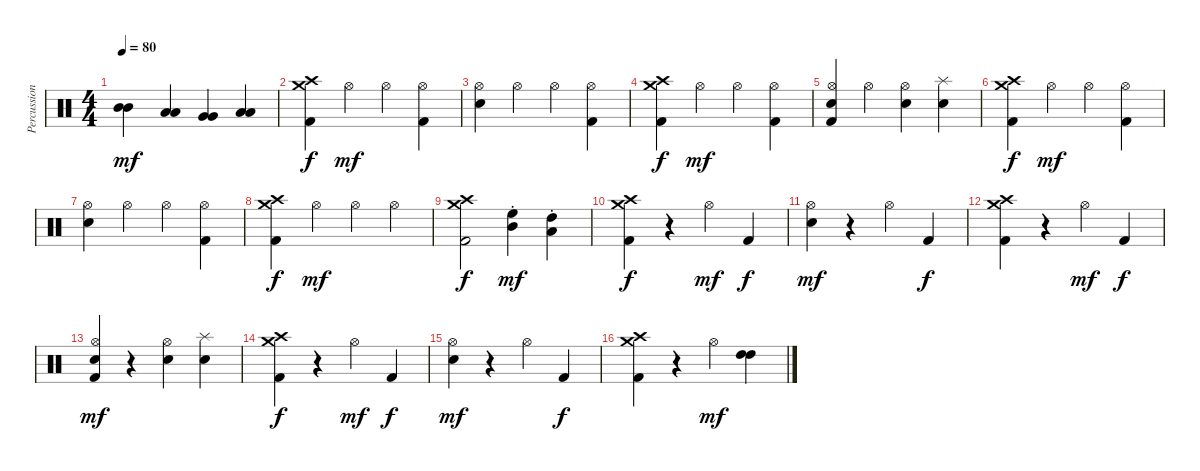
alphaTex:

\track ("Percussioni" "Percussion") {instrument percussion}
\staff {score}
\articulation defaults
\ts (4 4)
\tempo 80
\clef neutral
\ks c
("Mid Tom (hit)" "Mid Tom (hit)").4{dy mf} ("Low Tom (hit)" "Low Tom (hit)").4 ("Very Low Tom (hit)" "Very Low Tom (hit)").4 ("Low Floor Tom (hit)" "Low Floor Tom (hit)").4 |
("Crash high (hit)" "Crash medium (hit)" "Kick (hit) 2").4{dy f} "Hi-Hat (open)".4{dy mf} "Hi-Hat (open)".4 ("Hi-Hat (open)" "Kick (hit) 2").4 |
("Hi-Hat (open)" "Snare (hit) 2").4 "Hi-Hat (open)".4 "Hi-Hat (open)".4 ("Hi-Hat (open)" "Kick (hit) 2").4 |
("Crash high (hit)" "Crash medium (hit)" "Kick (hit) 2").4{dy f} "Hi-Hat (open)".4{dy mf} "Hi-Hat (open)".4 ("Hi-Hat (open)" "Kick (hit) 2").4 |
("Hi-Hat (open)" "Snare (hit) 2" "Kick (hit) 2").4 "Hi-Hat (open)".4 ("Hi-Hat (open)" "Electric Snare (hit)").4 ("Splash (hit)" "Electric Snare (hit)").4 |
("Crash high (hit)" "Crash medium (hit)" "Kick (hit) 2").4{dy f} "Hi-Hat (open)".4{dy mf} "Hi-Hat (open)".4 ("Hi-Hat (open)" "Kick (hit) 2").4 |
("Hi-Hat (open)" "Snare (hit) 2").4 "Hi-Hat (open)".4 "Hi-Hat (open)".4 ("Hi-Hat (open)" "Kick (hit) 2").4 |
("Crash high (hit)" "Crash medium (hit)" "Kick (hit) 2").4{dy f} "Hi-Hat (open)".4{dy mf} "Hi-Hat (open)".4 "Hi-Hat (open)".4 |
("Crash high (hit)" "Crash medium (hit)" "Kick (hit) 2").2{dy f} ("Mid Tom (hit)"{st} "High Floor Tom (hit)"{st}).4{dy mf} ("Low Tom (hit)"{st} "High Tom (hit)"{st}).4 |
("Crash high (hit)" "Crash medium (hit)" "Kick (hit) 2").4{dy f} r.4 "Hi-Hat (open)".4{dy mf} "Kick (hit) 2".4{dy f} |
("Hi-Hat (open)" "Snare (hit) 2").4{dy mf} r.4 "Hi-Hat (open)".4 "Kick (hit) 2".4{dy f} |
("Crash high (hit)" "Crash medium (hit)" "Kick (hit) 2").4 r.4 "Hi-Hat (open)".4{dy mf} "Kick (hit) 2".4{dy f} |
("Hi-Hat (open)" "Snare (hit) 2" "Kick (hit) 2").4{dy mf} r.4 ("Hi-Hat (open)" "Snare (hit) 2").4 ("Splash (hit)" "Snare (hit) 2").4 |
("Crash high (hit)" "Crash medium (hit)" "Kick (hit) 2").4{dy f} r.4 "Hi-Hat (open)".4{dy mf} "Kick (hit) 2".4{dy f} |
("Hi-Hat (open)" "Snare (hit) 2").4{dy mf} r.4 "Hi-Hat (open)".4 "Kick (hit) 2".4{dy f} |
("Crash high (hit)" "Crash medium (hit)" "Kick (hit) 2").4 r.4 "Hi-Hat (open)".4{dy mf} ("High Tom (hit)" "High Tom (hit)").4
